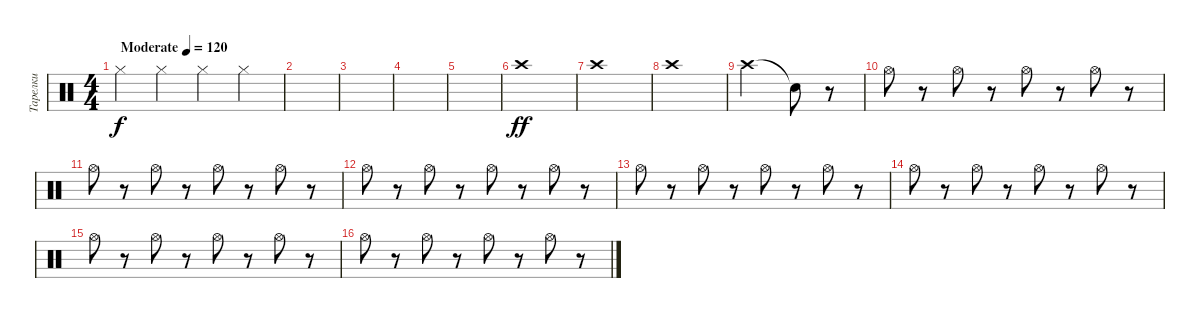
\track ("Тарелки" "Тарелки") {instrument percussion}
\staff {score}
\articulation defaults
\ts (4 4)
\tempo (120 "Moderate")
\clef neutral
\ks c "Hi-Hat (closed)".4{dy f} "Hi-Hat (closed)".4 "Hi-Hat (closed)".4 "Hi-Hat (closed)".4
|
|
|
|
|
"Crash high (hit)".1{dy ff} |
"Crash high (hit)".1 |
"Crash high (hit)".1 |
"Crash high (hit)".2 "Snare (hit)"{t}.8 r.8 |
"Hi-Hat (open)".8 r.8 "Hi-Hat (open)".8 r.8 "Hi-Hat (open)".8 r.8 "Hi-Hat (open)".8 r.8 |
"Hi-Hat (open)".8 r.8 "Hi-Hat (open)".8 r.8 "Hi-Hat (open)".8 r.8 "Hi-Hat (open)".8 r.8 |
"Hi-Hat (open)".8 r.8 "Hi-Hat (open)".8 r.8 "Hi-Hat (open)".8 r.8 "Hi-Hat (open)".8 r.8 |
"Hi-Hat (open)".8 r.8 "Hi-Hat (open)".8 r.8 "Hi-Hat (open)".8 r.8 "Hi-Hat (open)".8 r.8 |
"Hi-Hat (open)".8 r.8 "Hi-Hat (open)".8 r.8 "Hi-Hat (open)".8 r.8 "Hi-Hat (open)".8 r.8 |
"Hi-Hat (open)".8 r.8 "Hi-Hat (open)".8 r.8 "Hi-Hat (open)".8 r.8 "Hi-Hat (open)".8 r.8 |
"Hi-Hat (open)".8 r.8 "Hi-Hat (open)".8 r.8 "Hi-Hat (open)".8 r.8 "Hi-Hat (open)".8 r.8
